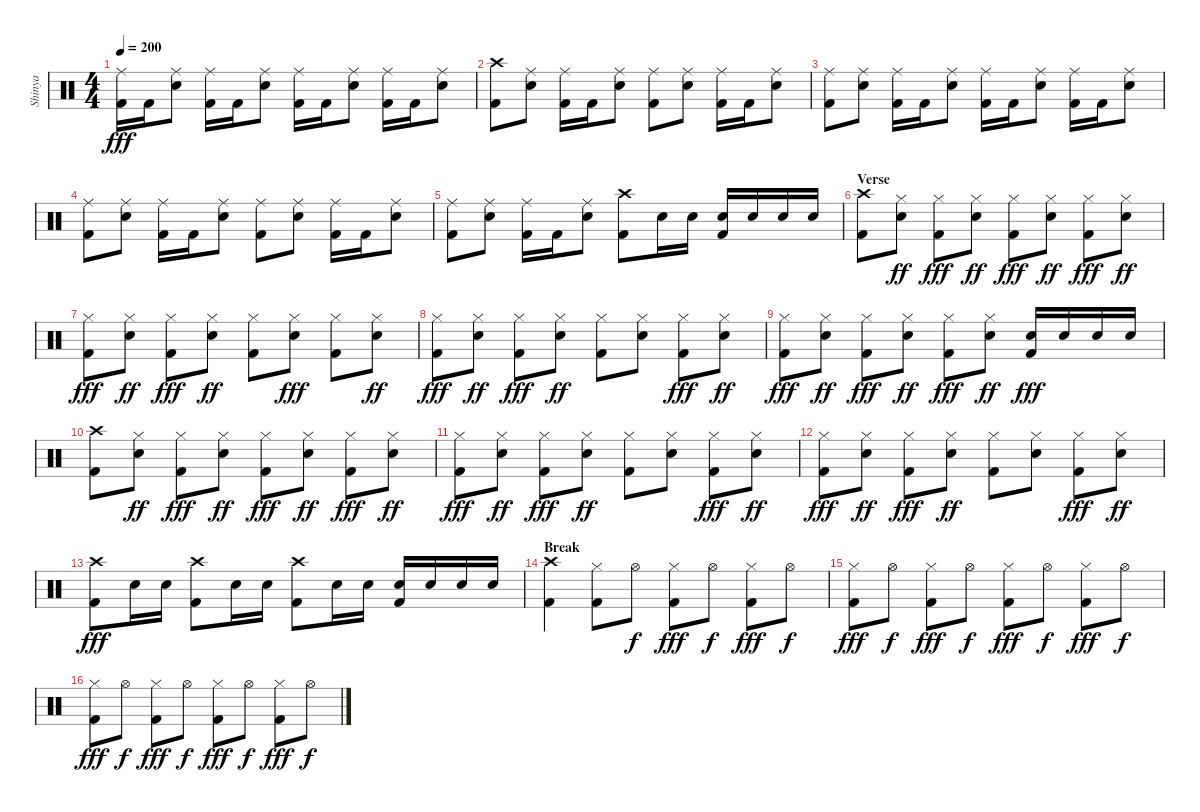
\track ("Shinya" "Shinya") {instrument percussion}
\staff {score}
\articulation defaults
\ts (4 4)
\tempo 200
\clef neutral
\ks c
("Ride (middle)" "Kick (hit) 2").16{dy fff} "Kick (hit) 2".16 ("Snare (hit) 2" "Ride (middle)").8 ("Ride (middle)" "Kick (hit) 2").16 "Kick (hit) 2".16 ("Snare (hit) 2" "Ride (middle)").8 ("Ride (middle)" "Kick (hit) 2").16 "Kick (hit) 2".16 ("Snare (hit) 2" "Ride (middle)").8 ("Ride (middle)" "Kick (hit) 2").16 "Kick (hit) 2".16 ("Snare (hit) 2" "Ride (middle)").8 |
("Kick (hit) 2" "Crash high (hit)").8 ("Snare (hit) 2" "Ride (middle)").8 ("Ride (middle)" "Kick (hit) 2").16 "Kick (hit) 2".16 ("Snare (hit) 2" "Ride (middle)").8 ("Ride (middle)" "Kick (hit) 2").8 ("Snare (hit) 2" "Ride (middle)").8 ("Ride (middle)" "Kick (hit) 2").16 "Kick (hit) 2".16 ("Snare (hit) 2" "Ride (middle)").8 |
("Ride (middle)" "Kick (hit) 2").8 ("Snare (hit) 2" "Ride (middle)").8 ("Ride (middle)" "Kick (hit) 2").16 "Kick (hit) 2".16 ("Snare (hit) 2" "Ride (middle)").8 ("Ride (middle)" "Kick (hit) 2").16 "Kick (hit) 2".16 ("Snare (hit) 2" "Ride (middle)").8 ("Ride (middle)" "Kick (hit) 2").16 "Kick (hit) 2".16 ("Snare (hit) 2" "Ride (middle)").8 |
("Ride (middle)" "Kick (hit) 2").8 ("Snare (hit) 2" "Ride (middle)").8 ("Ride (middle)" "Kick (hit) 2").16 "Kick (hit) 2".16 ("Snare (hit) 2" "Ride (middle)").8 ("Ride (middle)" "Kick (hit) 2").8 ("Snare (hit) 2" "Ride (middle)").8 ("Ride (middle)" "Kick (hit) 2").16 "Kick (hit) 2".16 ("Snare (hit) 2" "Ride (middle)").8 |
("Ride (middle)" "Kick (hit) 2").8 ("Snare (hit) 2" "Ride (middle)").8 ("Ride (middle)" "Kick (hit) 2").16 "Kick (hit) 2".16 ("Snare (hit) 2" "Ride (middle)").8 ("Kick (hit) 2" "Crash high (hit)").8 "Snare (hit) 2".16 "Snare (hit) 2".16 ("Snare (hit) 2" "Kick (hit) 2").16 "Snare (hit) 2".16 "Snare (hit) 2".16 "Snare (hit) 2".16 |
\section ("" "Verse")
("Crash high (hit)" "Kick (hit) 2").8 ("Snare (hit) 2" "Hi-Hat (closed)").8{dy ff} ("Hi-Hat (closed)" "Kick (hit) 2").8{dy fff} ("Snare (hit) 2" "Hi-Hat (closed)").8{dy ff} ("Hi-Hat (closed)" "Kick (hit) 2").8{dy fff} ("Snare (hit) 2" "Hi-Hat (closed)").8{dy ff} ("Hi-Hat (closed)" "Kick (hit) 2").8{dy fff} ("Snare (hit) 2" "Hi-Hat (closed)").8{dy ff} |
("Hi-Hat (closed)" "Kick (hit) 2").8{dy fff} ("Snare (hit) 2" "Hi-Hat (closed)").8{dy ff} ("Hi-Hat (closed)" "Kick (hit) 2").8{dy fff} ("Snare (hit) 2" "Hi-Hat (closed)").8{dy ff} ("Kick (hit) 2" "Hi-Hat (closed)").8 ("Hi-Hat (closed)" "Snare (hit) 2").8{dy fff} ("Hi-Hat (closed)" "Kick (hit) 2").8 ("Snare (hit) 2" "Hi-Hat (closed)").8{dy ff} |
("Hi-Hat (closed)" "Kick (hit) 2").8{dy fff} ("Snare (hit) 2" "Hi-Hat (closed)").8{dy ff} ("Hi-Hat (closed)" "Kick (hit) 2").8{dy fff} ("Snare (hit) 2" "Hi-Hat (closed)").8{dy ff} ("Kick (hit) 2" "Hi-Hat (closed)").8 ("Snare (hit) 2" "Hi-Hat (closed)").8 ("Hi-Hat (closed)" "Kick (hit) 2").8{dy fff} ("Snare (hit) 2" "Hi-Hat (closed)").8{dy ff} |
("Hi-Hat (closed)" "Kick (hit) 2").8{dy fff} ("Snare (hit) 2" "Hi-Hat (closed)").8{dy ff} ("Hi-Hat (closed)" "Kick (hit) 2").8{dy fff} ("Snare (hit) 2" "Hi-Hat (closed)").8{dy ff} ("Hi-Hat (closed)" "Kick (hit) 2").8{dy fff} ("Snare (hit) 2" "Hi-Hat (closed)").8{dy ff} ("Snare (hit) 2" "Kick (hit) 2").16{dy fff} "Snare (hit) 2".16 "Snare (hit) 2".16 "Snare (hit) 2".16 |
("Crash high (hit)" "Kick (hit) 2").8 ("Snare (hit) 2" "Hi-Hat (closed)").8{dy ff} ("Hi-Hat (closed)" "Kick (hit) 2").8{dy fff} ("Snare (hit) 2" "Hi-Hat (closed)").8{dy ff} ("Hi-Hat (closed)" "Kick (hit) 2").8{dy fff} ("Snare (hit) 2" "Hi-Hat (closed)").8{dy ff} ("Hi-Hat (closed)" "Kick (hit) 2").8{dy fff} ("Snare (hit) 2" "Hi-Hat (closed)").8{dy ff} |
("Hi-Hat (closed)" "Kick (hit) 2").8{dy fff} ("Snare (hit) 2" "Hi-Hat (closed)").8{dy ff} ("Hi-Hat (closed)" "Kick (hit) 2").8{dy fff} ("Snare (hit) 2" "Hi-Hat (closed)").8{dy ff} ("Kick (hit) 2" "Hi-Hat (closed)").8 ("Snare (hit) 2" "Hi-Hat (closed)").8 ("Hi-Hat (closed)" "Kick (hit) 2").8{dy fff} ("Snare (hit) 2" "Hi-Hat (closed)").8{dy ff} |
("Hi-Hat (closed)" "Kick (hit) 2").8{dy fff} ("Snare (hit) 2" "Hi-Hat (closed)").8{dy ff} ("Hi-Hat (closed)" "Kick (hit) 2").8{dy fff} ("Snare (hit) 2" "Hi-Hat (closed)").8{dy ff} ("Kick (hit) 2" "Hi-Hat (closed)").8 ("Snare (hit) 2" "Hi-Hat (closed)").8 ("Hi-Hat (closed)" "Kick (hit) 2").8{dy fff} ("Snare (hit) 2" "Hi-Hat (closed)").8{dy ff} |
("Crash high (hit)" "Kick (hit) 2").8{dy fff} "Snare (hit) 2".16 "Snare (hit) 2".16 ("Kick (hit) 2" "Crash high (hit)").8 "Snare (hit) 2".16 "Snare (hit) 2".16 ("Crash high (hit)" "Kick (hit) 2").8 "Snare (hit) 2".16 "Snare (hit) 2".16 ("Snare (hit) 2" "Kick (hit) 2").16 "Snare (hit) 2".16 "Snare (hit) 2".16 "Snare (hit) 2".16 |
\section ("" "Break")
("Kick (hit) 2" "Crash high (hit)").4 ("Hi-Hat (closed)" "Kick (hit) 2").8 "Hi-Hat (open)".8{dy f} ("Hi-Hat (closed)" "Kick (hit) 2").8{dy fff} "Hi-Hat (open)".8{dy f} ("Hi-Hat (closed)" "Kick (hit) 2").8{dy fff} "Hi-Hat (open)".8{dy f} |
("Hi-Hat (closed)" "Kick (hit) 2").8{dy fff} "Hi-Hat (open)".8{dy f} ("Hi-Hat (closed)" "Kick (hit) 2").8{dy fff} "Hi-Hat (open)".8{dy f} ("Hi-Hat (closed)" "Kick (hit) 2").8{dy fff} "Hi-Hat (open)".8{dy f} ("Hi-Hat (closed)" "Kick (hit) 2").8{dy fff} "Hi-Hat (open)".8{dy f} |
("Hi-Hat (closed)" "Kick (hit) 2").8{dy fff} "Hi-Hat (open)".8{dy f} ("Hi-Hat (closed)" "Kick (hit) 2").8{dy fff} "Hi-Hat (open)".8{dy f} ("Hi-Hat (closed)" "Kick (hit) 2").8{dy fff} "Hi-Hat (open)".8{dy f} ("Hi-Hat (closed)" "Kick (hit) 2").8{dy fff} "Hi-Hat (open)".8{dy f}
